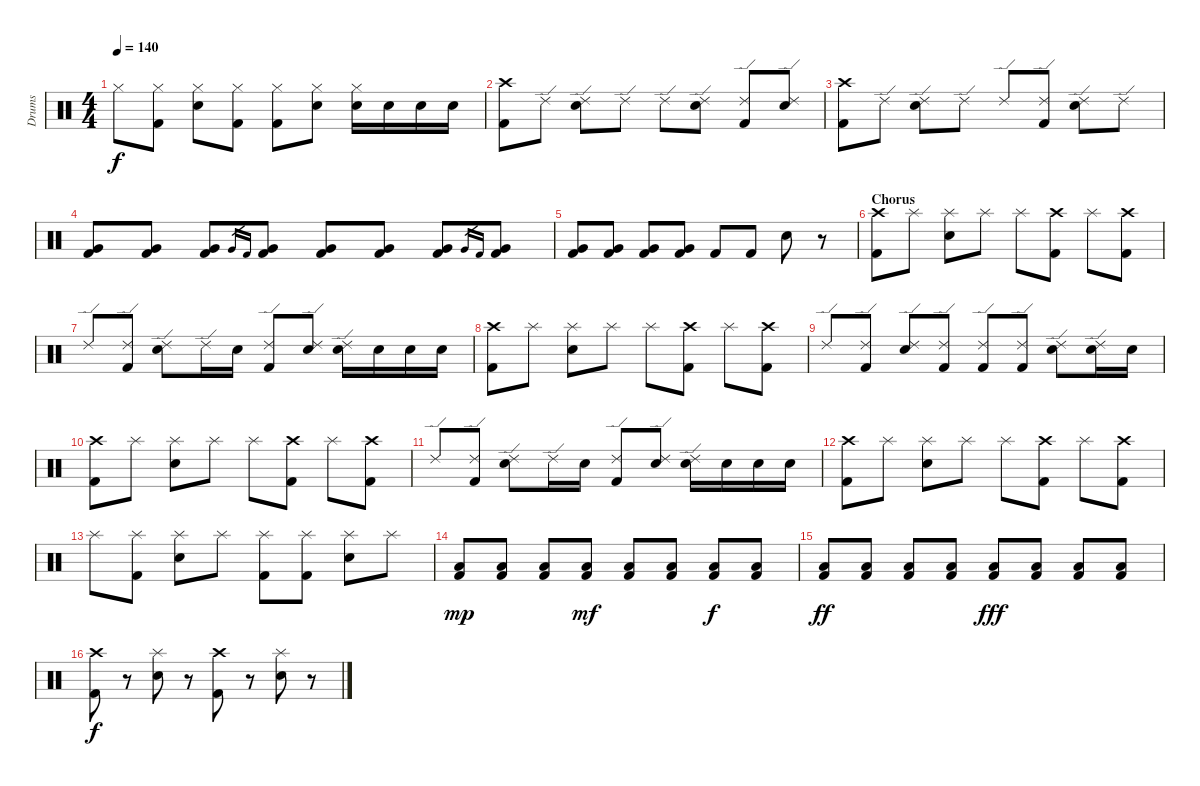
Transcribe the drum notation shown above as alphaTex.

\track ("Drums" "Drums") {instrument percussion}
\staff {score}
\articulation defaults
\ts (4 4)
\tempo 140
\clef neutral
\ks c "Hi-Hat (closed)".8{dy f}
("Hi-Hat (closed)" "Kick (hit) 2").8 ("Hi-Hat (closed)" "Electric Snare (hit)").8 ("Hi-Hat (closed)" "Kick (hit) 2").8 ("Hi-Hat (closed)" "Kick (hit) 2").8 ("Hi-Hat (closed)" "Electric Snare (hit)").8 ("Hi-Hat (closed)" "Electric Snare (hit)").16 "Electric Snare (hit)".16 "Electric Snare (hit)".16 "Electric Snare (hit)".16 |
("Crash high (hit)" "Kick (hit) 2").8 "Ride (edge) 2".8 ("Ride (edge) 2" "Electric Snare (hit)").8 "Ride (edge) 2".8 "Ride (edge) 2".8 ("Ride (edge) 2" "Electric Snare (hit)").8 ("Ride (edge) 2" "Kick (hit) 2").8 ("Ride (edge) 2" "Electric Snare (hit)").8 |
("Crash high (hit)" "Kick (hit) 2").8 "Ride (edge) 2".8 ("Ride (edge) 2" "Electric Snare (hit)").8 "Ride (edge) 2".8 "Ride (edge) 2".8 ("Ride (edge) 2" "Kick (hit) 2").8 ("Ride (edge) 2" "Electric Snare (hit)").8 "Ride (edge) 2".8 |
("Very Low Tom (hit)" "Kick (hit) 2").8 ("Very Low Tom (hit)" "Kick (hit) 2").8 ("Very Low Tom (hit)" "Kick (hit) 2").8 "Very Low Tom (hit)".16{gr} "Kick (hit) 2".16{gr} ("Very Low Tom (hit)" "Kick (hit) 2").8 ("Very Low Tom (hit)" "Kick (hit) 2").8 ("Very Low Tom (hit)" "Kick (hit) 2").8 ("Very Low Tom (hit)" "Kick (hit) 2").8 "Very Low Tom (hit)".16{gr} "Kick (hit) 2".16{gr} ("Very Low Tom (hit)" "Kick (hit) 2").8 |
("Very Low Tom (hit)" "Kick (hit) 2").8 ("Very Low Tom (hit)" "Kick (hit) 2").8 ("Very Low Tom (hit)" "Kick (hit) 2").8 ("Very Low Tom (hit)" "Kick (hit) 2").8 "Kick (hit) 2".8 "Kick (hit) 2".8 "Electric Snare (hit)".8 r.8 |
\section ("" "Chorus")
("Crash high (hit)" "Kick (hit) 2").8 "Splash (hit)".8 ("Splash (hit)" "Electric Snare (hit)").8 "Splash (hit)".8 "Splash (hit)".8 ("Crash high (hit)" "Kick (hit) 2").8 "Splash (hit)".8 ("Crash high (hit)" "Kick (hit) 2").8 |
"Ride (edge) 2".8 ("Ride (edge) 2" "Kick (hit) 2").8 ("Ride (edge) 2" "Electric Snare (hit)").8 "Ride (edge) 2".16 "Electric Snare (hit)".16 ("Ride (edge) 2" "Kick (hit) 2").8 ("Ride (edge) 2" "Electric Snare (hit)").8 ("Ride (edge) 2" "Electric Snare (hit)").16 "Electric Snare (hit)".16 "Electric Snare (hit)".16 "Electric Snare (hit)".16 |
("Crash high (hit)" "Kick (hit) 2").8 "Splash (hit)".8 ("Splash (hit)" "Electric Snare (hit)").8 "Splash (hit)".8 "Splash (hit)".8 ("Crash high (hit)" "Kick (hit) 2").8 "Splash (hit)".8 ("Crash high (hit)" "Kick (hit) 2").8 |
"Ride (edge) 2".8 ("Ride (edge) 2" "Kick (hit) 2").8 ("Ride (edge) 2" "Electric Snare (hit)").8 ("Ride (edge) 2" "Kick (hit) 2").8 ("Ride (edge) 2" "Kick (hit) 2").8 ("Ride (edge) 2" "Kick (hit) 2").8 ("Ride (edge) 2" "Electric Snare (hit)").8 ("Ride (edge) 2" "Electric Snare (hit)").16 "Electric Snare (hit)".16 |
("Crash high (hit)" "Kick (hit) 2").8 "Splash (hit)".8 ("Splash (hit)" "Electric Snare (hit)").8 "Splash (hit)".8 "Splash (hit)".8 ("Crash high (hit)" "Kick (hit) 2").8 "Splash (hit)".8 ("Crash high (hit)" "Kick (hit) 2").8 |
"Ride (edge) 2".8 ("Ride (edge) 2" "Kick (hit) 2").8 ("Ride (edge) 2" "Electric Snare (hit)").8 "Ride (edge) 2".16 "Electric Snare (hit)".16 ("Ride (edge) 2" "Kick (hit) 2").8 ("Ride (edge) 2" "Electric Snare (hit)").8 ("Ride (edge) 2" "Electric Snare (hit)").16 "Electric Snare (hit)".16 "Electric Snare (hit)".16 "Electric Snare (hit)".16 |
("Crash high (hit)" "Kick (hit) 2").8 "Splash (hit)".8 ("Splash (hit)" "Electric Snare (hit)").8 "Splash (hit)".8 "Splash (hit)".8 ("Crash high (hit)" "Kick (hit) 2").8 "Splash (hit)".8 ("Crash high (hit)" "Kick (hit) 2").8 |
"Splash (hit)".8 ("Splash (hit)" "Kick (hit) 2").8 ("Splash (hit)" "Electric Snare (hit)").8 "Splash (hit)".8 ("Splash (hit)" "Kick (hit) 2").8 ("Splash (hit)" "Kick (hit) 2").8 ("Splash (hit)" "Electric Snare (hit)").8 "Splash (hit)".8 |
("Low Floor Tom (hit)" "Kick (hit) 2").8{dy mp} ("Low Floor Tom (hit)" "Kick (hit) 2").8 ("Low Floor Tom (hit)" "Kick (hit) 2").8 ("Low Floor Tom (hit)" "Kick (hit) 2").8{dy mf} ("Low Floor Tom (hit)" "Kick (hit) 2").8 ("Low Floor Tom (hit)" "Kick (hit) 2").8 ("Low Floor Tom (hit)" "Kick (hit) 2").8{dy f} ("Low Floor Tom (hit)" "Kick (hit) 2").8 |
("Low Floor Tom (hit)" "Kick (hit) 2").8{dy ff} ("Low Floor Tom (hit)" "Kick (hit) 2").8 ("Low Floor Tom (hit)" "Kick (hit) 2").8 ("Low Floor Tom (hit)" "Kick (hit) 2").8 ("Low Floor Tom (hit)" "Kick (hit) 2").8{dy fff} ("Low Floor Tom (hit)" "Kick (hit) 2").8 ("Low Floor Tom (hit)" "Kick (hit) 2").8 ("Low Floor Tom (hit)" "Kick (hit) 2").8 |
("Crash high (hit)" "Kick (hit) 2").8{dy f} r.8 ("Splash (hit)" "Electric Snare (hit)").8 r.8 ("Crash high (hit)" "Kick (hit) 2").8 r.8 ("Splash (hit)" "Electric Snare (hit)").8 r.8
